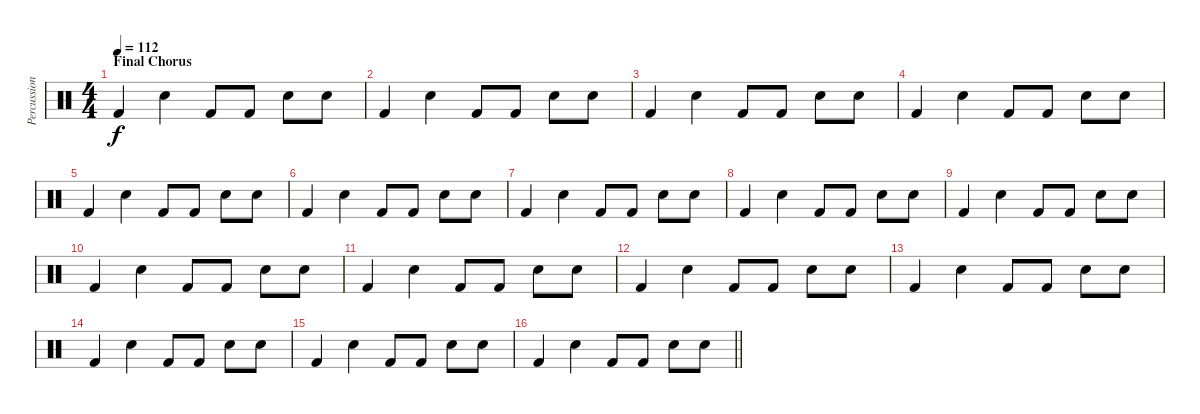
\track ("Percussions" "Percussion") {instrument percussion}
\staff {score}
\articulation defaults
\ts (4 4)
\section ("" "Final Chorus")
\tempo 112
\clef neutral
\ks c "Kick (hit) 2".4{dy f} "Electric Snare (hit)".4 "Kick (hit) 2".8 "Kick (hit) 2".8 "Electric Snare (hit)".8 "Electric Snare (hit)".8
|
"Kick (hit) 2".4 "Electric Snare (hit)".4 "Kick (hit) 2".8 "Kick (hit) 2".8 "Electric Snare (hit)".8 "Electric Snare (hit)".8 |
"Kick (hit) 2".4 "Electric Snare (hit)".4 "Kick (hit) 2".8 "Kick (hit) 2".8 "Electric Snare (hit)".8 "Electric Snare (hit)".8 |
"Kick (hit) 2".4 "Electric Snare (hit)".4 "Kick (hit) 2".8 "Kick (hit) 2".8 "Electric Snare (hit)".8 "Electric Snare (hit)".8 |
"Kick (hit) 2".4 "Electric Snare (hit)".4 "Kick (hit) 2".8 "Kick (hit) 2".8 "Electric Snare (hit)".8 "Electric Snare (hit)".8 |
"Kick (hit) 2".4 "Electric Snare (hit)".4 "Kick (hit) 2".8 "Kick (hit) 2".8 "Electric Snare (hit)".8 "Electric Snare (hit)".8 |
"Kick (hit) 2".4 "Electric Snare (hit)".4 "Kick (hit) 2".8 "Kick (hit) 2".8 "Electric Snare (hit)".8 "Electric Snare (hit)".8 |
"Kick (hit) 2".4 "Electric Snare (hit)".4 "Kick (hit) 2".8 "Kick (hit) 2".8 "Electric Snare (hit)".8 "Electric Snare (hit)".8 |
"Kick (hit) 2".4 "Electric Snare (hit)".4 "Kick (hit) 2".8 "Kick (hit) 2".8 "Electric Snare (hit)".8 "Electric Snare (hit)".8 |
"Kick (hit) 2".4 "Electric Snare (hit)".4 "Kick (hit) 2".8 "Kick (hit) 2".8 "Electric Snare (hit)".8 "Electric Snare (hit)".8 |
"Kick (hit) 2".4 "Electric Snare (hit)".4 "Kick (hit) 2".8 "Kick (hit) 2".8 "Electric Snare (hit)".8 "Electric Snare (hit)".8 |
"Kick (hit) 2".4 "Electric Snare (hit)".4 "Kick (hit) 2".8 "Kick (hit) 2".8 "Electric Snare (hit)".8 "Electric Snare (hit)".8 |
"Kick (hit) 2".4 "Electric Snare (hit)".4 "Kick (hit) 2".8 "Kick (hit) 2".8 "Electric Snare (hit)".8 "Electric Snare (hit)".8 |
"Kick (hit) 2".4 "Electric Snare (hit)".4 "Kick (hit) 2".8 "Kick (hit) 2".8 "Electric Snare (hit)".8 "Electric Snare (hit)".8 |
"Kick (hit) 2".4 "Electric Snare (hit)".4 "Kick (hit) 2".8 "Kick (hit) 2".8 "Electric Snare (hit)".8 "Electric Snare (hit)".8 |
\barLineRight lightlight "Kick (hit) 2".4 "Electric Snare (hit)".4 "Kick (hit) 2".8 "Kick (hit) 2".8 "Electric Snare (hit)".8 "Electric Snare (hit)".8
